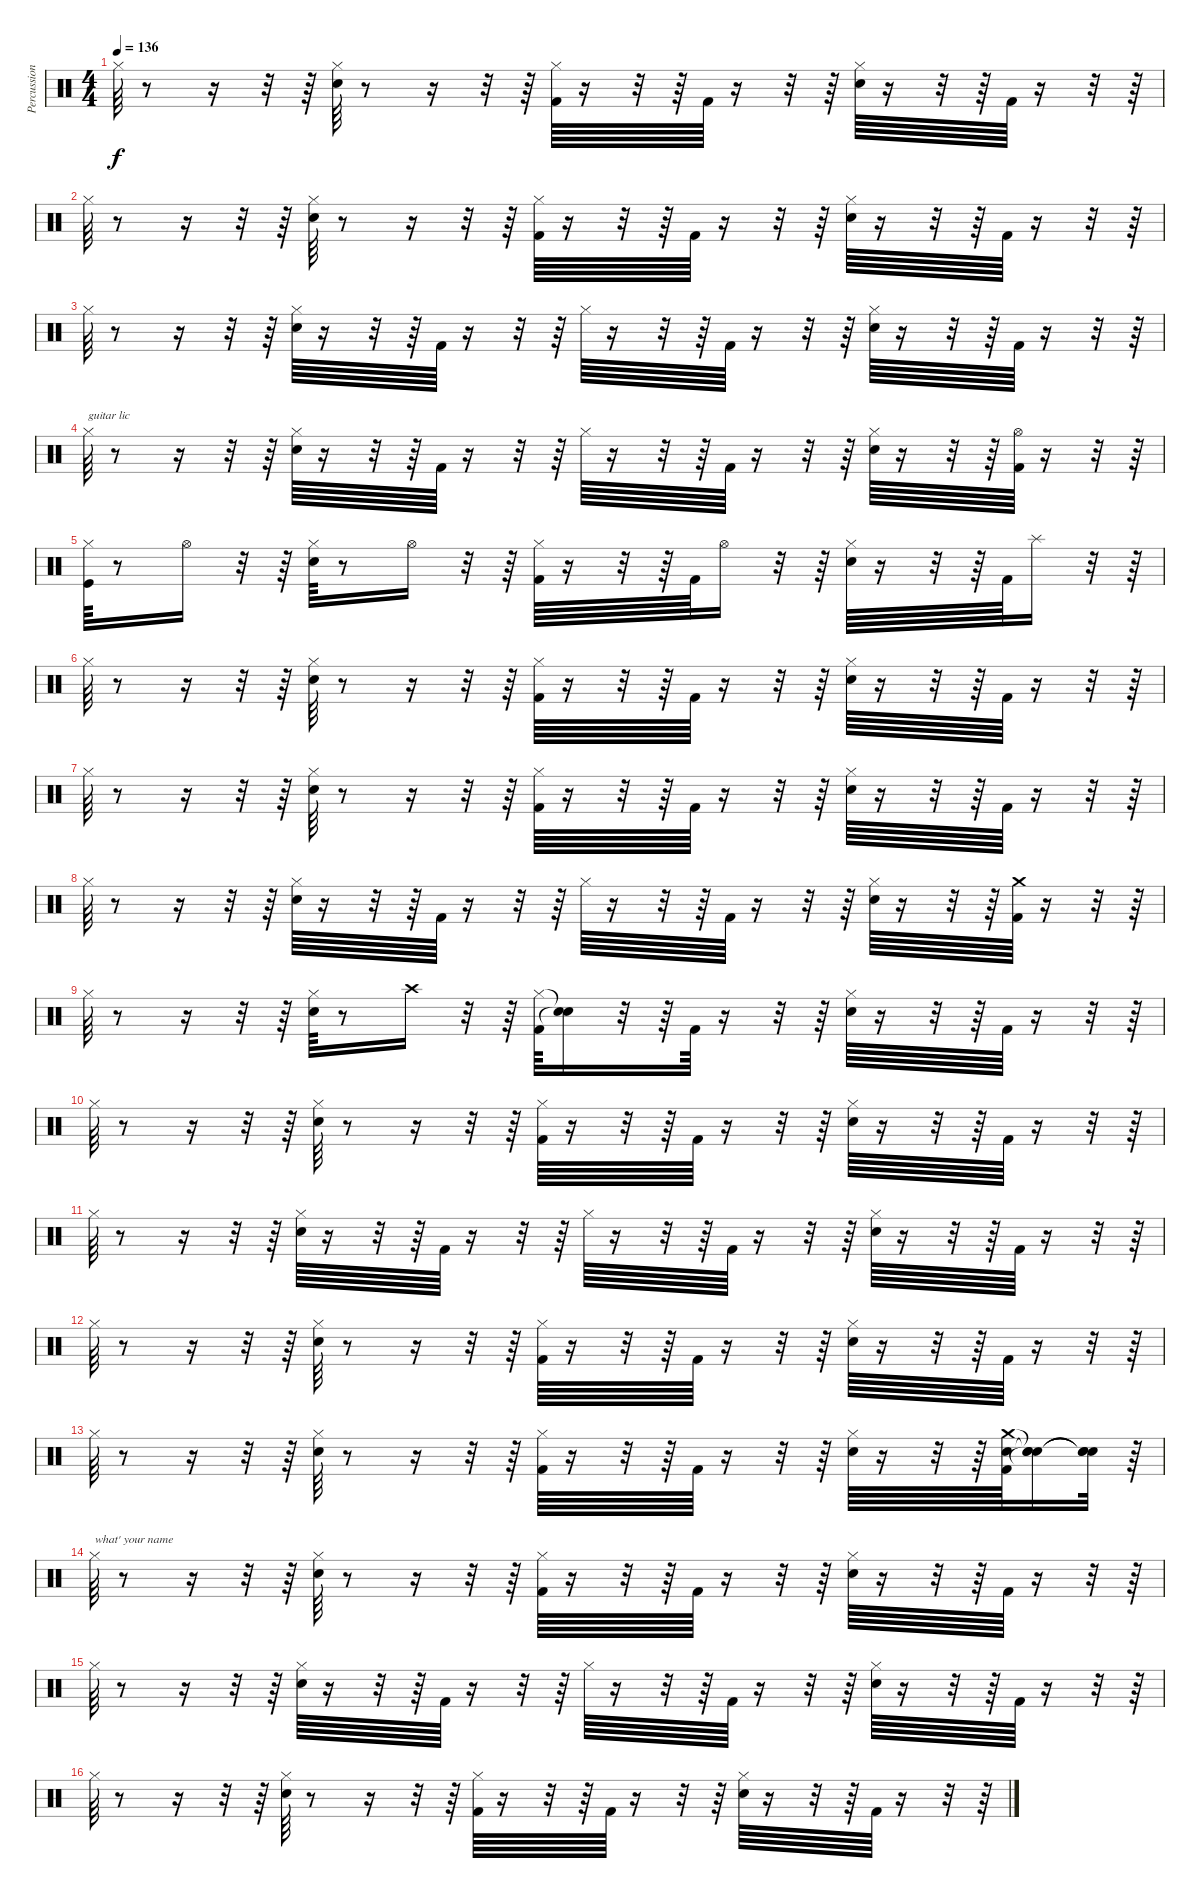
\track ("Percussions" "Percussion") {instrument percussion}
\staff {score}
\articulation defaults
\ts (4 4)
\tempo 136
\clef neutral
\ks c "Hi-Hat (closed)".64{dy f}
r.8 r.16 r.32 r.64 ("Snare (hit) 2" "Hi-Hat (closed)").64 r.8 r.16 r.32 r.64 ("Kick (hit) 2" "Hi-Hat (closed)").64 r.16 r.32 r.64 "Kick (hit) 2".64 r.16 r.32 r.64 ("Snare (hit) 2" "Hi-Hat (closed)").64 r.16 r.32 r.64 "Kick (hit) 2".64 r.16 r.32 r.64 |
"Hi-Hat (closed)".64 r.8 r.16 r.32 r.64 ("Snare (hit) 2" "Hi-Hat (closed)").64 r.8 r.16 r.32 r.64 ("Kick (hit) 2" "Hi-Hat (closed)").64 r.16 r.32 r.64 "Kick (hit) 2".64 r.16 r.32 r.64 ("Snare (hit) 2" "Hi-Hat (closed)").64 r.16 r.32 r.64 "Kick (hit) 2".64 r.16 r.32 r.64 |
"Hi-Hat (closed)".64 r.8 r.16 r.32 r.64 ("Snare (hit) 2" "Hi-Hat (closed)").64 r.16 r.32 r.64 "Kick (hit) 2".64 r.16 r.32 r.64 "Hi-Hat (closed)".64 r.16 r.32 r.64 "Kick (hit) 2".64 r.16 r.32 r.64 ("Snare (hit) 2" "Hi-Hat (closed)").64 r.16 r.32 r.64 "Kick (hit) 2".64 r.16 r.32 r.64 |
"Hi-Hat (closed)".64{txt "guitar lic"} r.8 r.16 r.32 r.64 ("Snare (hit) 2" "Hi-Hat (closed)").64 r.16 r.32 r.64 "Kick (hit) 2".64 r.16 r.32 r.64 "Hi-Hat (closed)".64 r.16 r.32 r.64 "Kick (hit) 2".64 r.16 r.32 r.64 ("Snare (hit) 2" "Hi-Hat (closed)").64 r.16 r.32 r.64 ("Kick (hit) 2" "Hi-Hat (open)").64 r.16 r.32 r.64 |
("Kick (hit)" "Hi-Hat (closed)").64 r.8 "Hi-Hat (open)".16 r.32 r.64 ("Snare (hit) 2" "Hi-Hat (closed)").64 r.8 "Hi-Hat (open)".16 r.32 r.64 ("Kick (hit) 2" "Hi-Hat (closed)").64 r.16 r.32 r.64 "Kick (hit) 2".64 "Hi-Hat (open)".16 r.32 r.64 ("Snare (hit) 2" "Hi-Hat (closed)").64 r.16 r.32 r.64 "Kick (hit) 2".64 "Splash (hit)".16 r.32 r.64 |
"Hi-Hat (closed)".64 r.8 r.16 r.32 r.64 ("Snare (hit) 2" "Hi-Hat (closed)").64 r.8 r.16 r.32 r.64 ("Kick (hit) 2" "Hi-Hat (closed)").64 r.16 r.32 r.64 "Kick (hit) 2".64 r.16 r.32 r.64 ("Snare (hit) 2" "Hi-Hat (closed)").64 r.16 r.32 r.64 "Kick (hit) 2".64 r.16 r.32 r.64 |
"Hi-Hat (closed)".64 r.8 r.16 r.32 r.64 ("Snare (hit) 2" "Hi-Hat (closed)").64 r.8 r.16 r.32 r.64 ("Kick (hit) 2" "Hi-Hat (closed)").64 r.16 r.32 r.64 "Kick (hit) 2".64 r.16 r.32 r.64 ("Snare (hit) 2" "Hi-Hat (closed)").64 r.16 r.32 r.64 "Kick (hit) 2".64 r.16 r.32 r.64 |
"Hi-Hat (closed)".64 r.8 r.16 r.32 r.64 ("Snare (hit) 2" "Hi-Hat (closed)").64 r.16 r.32 r.64 "Kick (hit) 2".64 r.16 r.32 r.64 "Hi-Hat (closed)".64 r.16 r.32 r.64 "Kick (hit) 2".64 r.16 r.32 r.64 ("Snare (hit) 2" "Hi-Hat (closed)").64 r.16 r.32 r.64 ("Kick (hit) 2" "Crash medium (hit)").64 r.16 r.32 r.64 |
"Hi-Hat (closed)".64 r.8 r.16 r.32 r.64 ("Snare (hit) 2" "Hi-Hat (closed)").64 r.8 "Crash high (hit)".16 r.32 r.64 ("Kick (hit) 2" "Hi-Hat (closed)").64 ("Snare (hit)"{t} "Snare (hit)"{t}).16 r.32 r.64 "Kick (hit) 2".64 r.16 r.32 r.64 ("Snare (hit) 2" "Hi-Hat (closed)").64 r.16 r.32 r.64 "Kick (hit) 2".64 r.16 r.32 r.64 |
"Hi-Hat (closed)".64 r.8 r.16 r.32 r.64 ("Snare (hit) 2" "Hi-Hat (closed)").64 r.8 r.16 r.32 r.64 ("Kick (hit) 2" "Hi-Hat (closed)").64 r.16 r.32 r.64 "Kick (hit) 2".64 r.16 r.32 r.64 ("Snare (hit) 2" "Hi-Hat (closed)").64 r.16 r.32 r.64 "Kick (hit) 2".64 r.16 r.32 r.64 |
"Hi-Hat (closed)".64 r.8 r.16 r.32 r.64 ("Snare (hit) 2" "Hi-Hat (closed)").64 r.16 r.32 r.64 "Kick (hit) 2".64 r.16 r.32 r.64 "Hi-Hat (closed)".64 r.16 r.32 r.64 "Kick (hit) 2".64 r.16 r.32 r.64 ("Snare (hit) 2" "Hi-Hat (closed)").64 r.16 r.32 r.64 "Kick (hit) 2".64 r.16 r.32 r.64 |
"Hi-Hat (closed)".64 r.8 r.16 r.32 r.64 ("Snare (hit) 2" "Hi-Hat (closed)").64 r.8 r.16 r.32 r.64 ("Kick (hit) 2" "Hi-Hat (closed)").64 r.16 r.32 r.64 "Kick (hit) 2".64 r.16 r.32 r.64 ("Snare (hit) 2" "Hi-Hat (closed)").64 r.16 r.32 r.64 "Kick (hit) 2".64 r.16 r.32 r.64 |
"Hi-Hat (closed)".64 r.8 r.16 r.32 r.64 ("Snare (hit) 2" "Hi-Hat (closed)").64 r.8 r.16 r.32 r.64 ("Kick (hit) 2" "Hi-Hat (closed)").64 r.16 r.32 r.64 "Kick (hit) 2".64 r.16 r.32 r.64 ("Snare (hit) 2" "Hi-Hat (closed)").64 r.16 r.32 r.64 ("Kick (hit) 2" "Snare (hit) 2" "Crash medium (hit)").64 ("Snare (hit)"{t} "Snare (hit)"{t} "Snare (hit)"{t}).16 ("Snare (hit)"{t} "Snare (hit)"{t} "Snare (hit)"{t}).32 r.64 |
"Hi-Hat (closed)".64{txt "what' your name"} r.8 r.16 r.32 r.64 ("Snare (hit) 2" "Hi-Hat (closed)").64 r.8 r.16 r.32 r.64 ("Kick (hit) 2" "Hi-Hat (closed)").64 r.16 r.32 r.64 "Kick (hit) 2".64 r.16 r.32 r.64 ("Snare (hit) 2" "Hi-Hat (closed)").64 r.16 r.32 r.64 "Kick (hit) 2".64 r.16 r.32 r.64 |
"Hi-Hat (closed)".64 r.8 r.16 r.32 r.64 ("Snare (hit) 2" "Hi-Hat (closed)").64 r.16 r.32 r.64 "Kick (hit) 2".64 r.16 r.32 r.64 "Hi-Hat (closed)".64 r.16 r.32 r.64 "Kick (hit) 2".64 r.16 r.32 r.64 ("Snare (hit) 2" "Hi-Hat (closed)").64 r.16 r.32 r.64 "Kick (hit) 2".64 r.16 r.32 r.64 |
"Hi-Hat (closed)".64 r.8 r.16 r.32 r.64 ("Snare (hit) 2" "Hi-Hat (closed)").64 r.8 r.16 r.32 r.64 ("Kick (hit) 2" "Hi-Hat (closed)").64 r.16 r.32 r.64 "Kick (hit) 2".64 r.16 r.32 r.64 ("Snare (hit) 2" "Hi-Hat (closed)").64 r.16 r.32 r.64 "Kick (hit) 2".64 r.16 r.32 r.64
